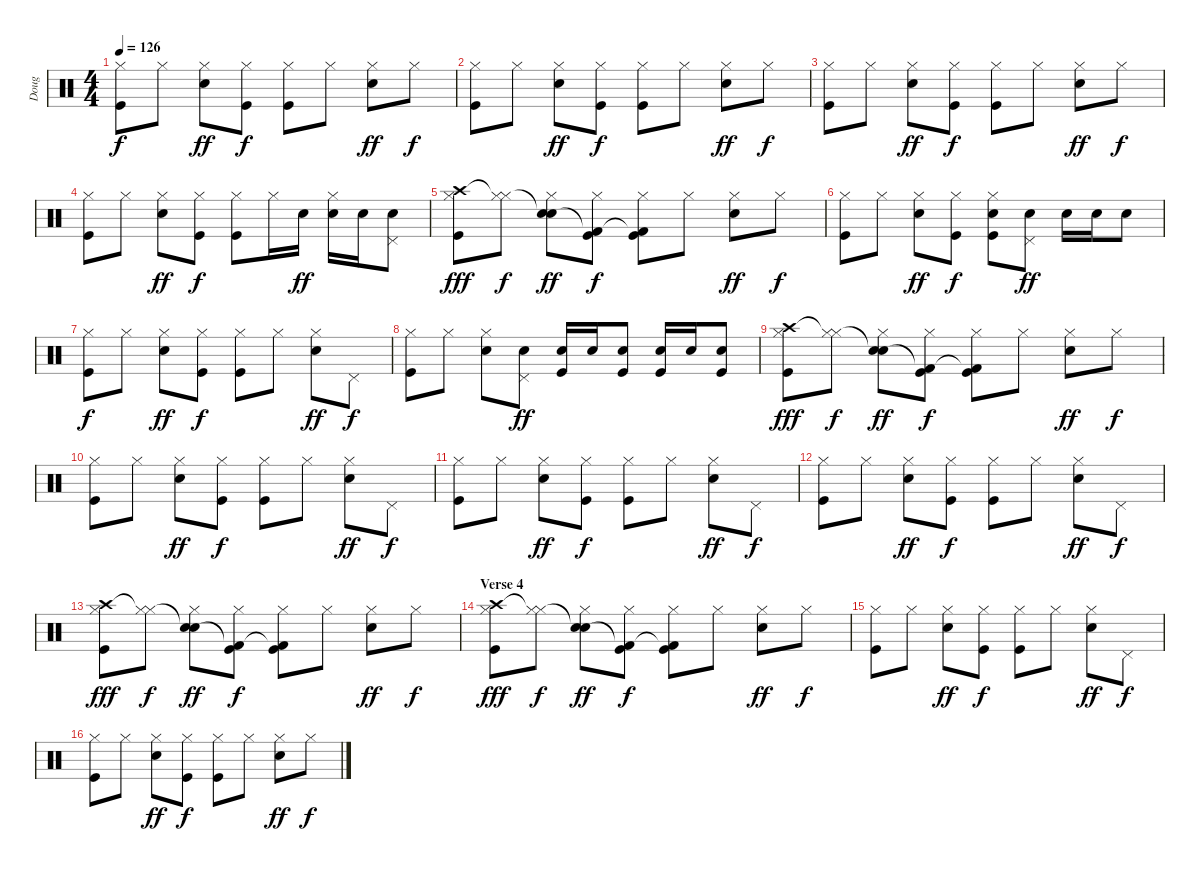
\track ("Doug" "Doug") {instrument percussion}
\staff {score}
\articulation defaults
\ts (4 4)
\tempo 126
\clef neutral
\ks c
("Hi-Hat (closed)" "Kick (hit)").8{dy f} "Hi-Hat (closed)".8 ("Hi-Hat (closed)" "Snare (hit) 2").8{dy ff} ("Hi-Hat (closed)" "Kick (hit)").8{dy f} ("Hi-Hat (closed)" "Kick (hit)").8 "Hi-Hat (closed)".8 ("Hi-Hat (closed)" "Snare (hit) 2").8{dy ff} "Hi-Hat (closed)".8{dy f} |
("Hi-Hat (closed)" "Kick (hit)").8 "Hi-Hat (closed)".8 ("Hi-Hat (closed)" "Snare (hit) 2").8{dy ff} ("Hi-Hat (closed)" "Kick (hit)").8{dy f} ("Hi-Hat (closed)" "Kick (hit)").8 "Hi-Hat (closed)".8 ("Hi-Hat (closed)" "Snare (hit) 2").8{dy ff} "Hi-Hat (closed)".8{dy f} |
("Hi-Hat (closed)" "Kick (hit)").8 "Hi-Hat (closed)".8 ("Hi-Hat (closed)" "Snare (hit) 2").8{dy ff} ("Hi-Hat (closed)" "Kick (hit)").8{dy f} ("Hi-Hat (closed)" "Kick (hit)").8 "Hi-Hat (closed)".8 ("Hi-Hat (closed)" "Snare (hit) 2").8{dy ff} "Hi-Hat (closed)".8{dy f} |
("Hi-Hat (closed)" "Kick (hit)").8 "Hi-Hat (closed)".8 ("Hi-Hat (closed)" "Snare (hit) 2").8{dy ff} ("Hi-Hat (closed)" "Kick (hit)").8{dy f} ("Hi-Hat (closed)" "Kick (hit)").8 "Hi-Hat (closed)".16 "Snare (hit) 2".16{dy ff} ("Hi-Hat (closed)" "Snare (hit) 2").16 "Snare (hit) 2".16 ("Pedal Hi-Hat (hit)" "Snare (hit) 2").8 |
("Crash high (hit)" "Hi-Hat (closed)" "Kick (hit)").8{dy fff} ("Hi-Hat (closed)"{t} "Hi-Hat (closed)").8{dy f} ("Snare (hit) 2"{t} "Hi-Hat (closed)" "Snare (hit) 2").8{dy ff} ("Kick (hit) 2"{t} "Hi-Hat (closed)" "Kick (hit)").8{dy f} ("Kick (hit) 2"{t} "Hi-Hat (closed)" "Kick (hit)").8 "Hi-Hat (closed)".8 ("Hi-Hat (closed)" "Snare (hit) 2").8{dy ff} "Hi-Hat (closed)".8{dy f} |
("Hi-Hat (closed)" "Kick (hit)").8 "Hi-Hat (closed)".8 ("Hi-Hat (closed)" "Snare (hit) 2").8{dy ff} ("Hi-Hat (closed)" "Kick (hit)").8{dy f} ("Hi-Hat (closed)" "Snare (hit) 2" "Kick (hit)").8 ("Pedal Hi-Hat (hit)" "Snare (hit) 2").8{dy ff} "Snare (hit) 2".16 "Snare (hit) 2".16 "Snare (hit) 2".8 |
("Hi-Hat (closed)" "Kick (hit)").8{dy f} "Hi-Hat (closed)".8 ("Hi-Hat (closed)" "Snare (hit) 2").8{dy ff} ("Hi-Hat (closed)" "Kick (hit)").8{dy f} ("Hi-Hat (closed)" "Kick (hit)").8 "Hi-Hat (closed)".8 ("Hi-Hat (closed)" "Snare (hit) 2").8{dy ff} "Pedal Hi-Hat (hit)".8{dy f} |
("Hi-Hat (closed)" "Kick (hit)").8 "Hi-Hat (closed)".8 ("Hi-Hat (closed)" "Snare (hit) 2").8 ("Pedal Hi-Hat (hit)" "Snare (hit) 2").8{dy ff} ("Snare (hit) 2" "Kick (hit)").16 "Snare (hit) 2".16 ("Snare (hit) 2" "Kick (hit)").8 ("Snare (hit) 2" "Kick (hit)").16 "Snare (hit) 2".16 ("Snare (hit) 2" "Kick (hit)").8 |
("Crash high (hit)" "Hi-Hat (closed)" "Kick (hit)").8{dy fff} ("Hi-Hat (closed)"{t} "Hi-Hat (closed)").8{dy f} ("Snare (hit) 2"{t} "Hi-Hat (closed)" "Snare (hit) 2").8{dy ff} ("Kick (hit) 2"{t} "Hi-Hat (closed)" "Kick (hit)").8{dy f} ("Kick (hit) 2"{t} "Hi-Hat (closed)" "Kick (hit)").8 "Hi-Hat (closed)".8 ("Hi-Hat (closed)" "Snare (hit) 2").8{dy ff} "Hi-Hat (closed)".8{dy f} |
("Hi-Hat (closed)" "Kick (hit)").8 "Hi-Hat (closed)".8 ("Hi-Hat (closed)" "Snare (hit) 2").8{dy ff} ("Hi-Hat (closed)" "Kick (hit)").8{dy f} ("Hi-Hat (closed)" "Kick (hit)").8 "Hi-Hat (closed)".8 ("Hi-Hat (closed)" "Snare (hit) 2").8{dy ff} "Pedal Hi-Hat (hit)".8{dy f} |
("Hi-Hat (closed)" "Kick (hit)").8 "Hi-Hat (closed)".8 ("Hi-Hat (closed)" "Snare (hit) 2").8{dy ff} ("Hi-Hat (closed)" "Kick (hit)").8{dy f} ("Hi-Hat (closed)" "Kick (hit)").8 "Hi-Hat (closed)".8 ("Hi-Hat (closed)" "Snare (hit) 2").8{dy ff} "Pedal Hi-Hat (hit)".8{dy f} |
("Hi-Hat (closed)" "Kick (hit)").8 "Hi-Hat (closed)".8 ("Hi-Hat (closed)" "Snare (hit) 2").8{dy ff} ("Hi-Hat (closed)" "Kick (hit)").8{dy f} ("Hi-Hat (closed)" "Kick (hit)").8 "Hi-Hat (closed)".8 ("Hi-Hat (closed)" "Snare (hit) 2").8{dy ff} "Pedal Hi-Hat (hit)".8{dy f} |
("Crash high (hit)" "Hi-Hat (closed)" "Kick (hit)").8{dy fff} ("Hi-Hat (closed)"{t} "Hi-Hat (closed)").8{dy f} ("Snare (hit) 2"{t} "Hi-Hat (closed)" "Snare (hit) 2").8{dy ff} ("Kick (hit) 2"{t} "Hi-Hat (closed)" "Kick (hit)").8{dy f} ("Kick (hit) 2"{t} "Hi-Hat (closed)" "Kick (hit)").8 "Hi-Hat (closed)".8 ("Hi-Hat (closed)" "Snare (hit) 2").8{dy ff} "Hi-Hat (closed)".8{dy f} |
\section ("" "Verse 4")
("Crash high (hit)" "Hi-Hat (closed)" "Kick (hit)").8{dy fff} ("Hi-Hat (closed)"{t} "Hi-Hat (closed)").8{dy f} ("Snare (hit) 2"{t} "Hi-Hat (closed)" "Snare (hit) 2").8{dy ff} ("Kick (hit) 2"{t} "Hi-Hat (closed)" "Kick (hit)").8{dy f} ("Kick (hit) 2"{t} "Hi-Hat (closed)" "Kick (hit)").8 "Hi-Hat (closed)".8 ("Hi-Hat (closed)" "Snare (hit) 2").8{dy ff} "Hi-Hat (closed)".8{dy f} |
("Hi-Hat (closed)" "Kick (hit)").8 "Hi-Hat (closed)".8 ("Hi-Hat (closed)" "Snare (hit) 2").8{dy ff} ("Hi-Hat (closed)" "Kick (hit)").8{dy f} ("Hi-Hat (closed)" "Kick (hit)").8 "Hi-Hat (closed)".8 ("Hi-Hat (closed)" "Snare (hit) 2").8{dy ff} "Pedal Hi-Hat (hit)".8{dy f} |
("Hi-Hat (closed)" "Kick (hit)").8 "Hi-Hat (closed)".8 ("Hi-Hat (closed)" "Snare (hit) 2").8{dy ff} ("Hi-Hat (closed)" "Kick (hit)").8{dy f} ("Hi-Hat (closed)" "Kick (hit)").8 "Hi-Hat (closed)".8 ("Hi-Hat (closed)" "Snare (hit) 2").8{dy ff} "Hi-Hat (closed)".8{dy f}
